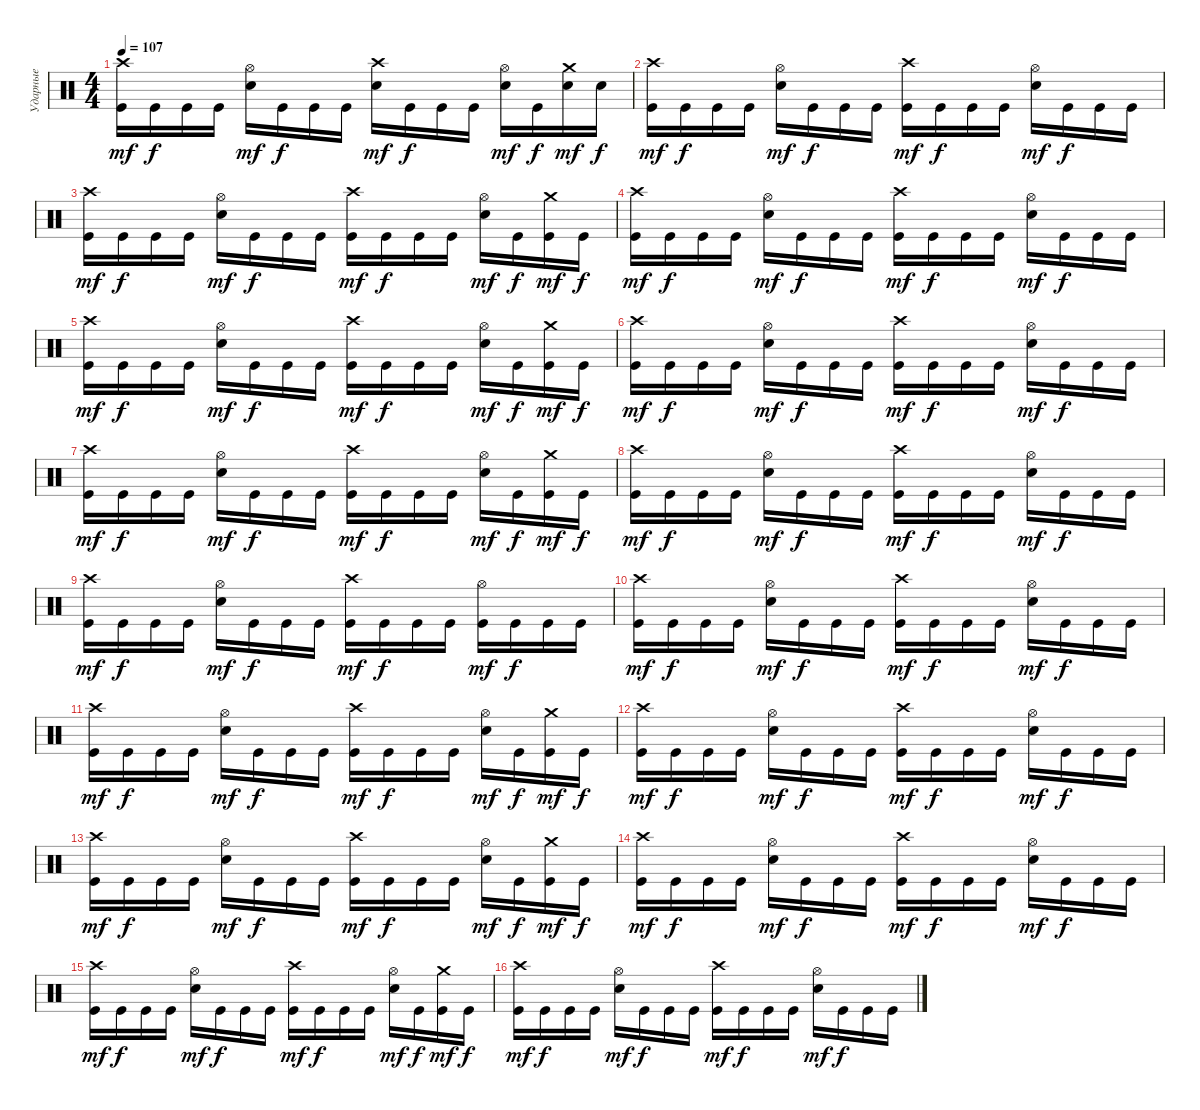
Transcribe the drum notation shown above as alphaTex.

\track ("Ударные" "Ударные") {instrument percussion}
\staff {score}
\articulation defaults
\ts (4 4)
\tempo 107
\clef neutral
\ks c
("Crash high (hit)" "Kick (hit)").16{dy mf} "Kick (hit)".16{dy f} "Kick (hit)".16 "Kick (hit)".16 ("Hi-Hat (open)" "Electric Snare (hit)").16{dy mf} "Kick (hit)".16{dy f} "Kick (hit)".16 "Kick (hit)".16 ("Crash high (hit)" "Electric Snare (hit)").16{dy mf} "Kick (hit)".16{dy f} "Kick (hit)".16 "Kick (hit)".16 ("Hi-Hat (open)" "Electric Snare (hit)").16{dy mf} "Kick (hit)".16{dy f} ("Crash medium (hit)" "Electric Snare (hit)").16{dy mf} "Electric Snare (hit)".16{dy f} |
("Crash high (hit)" "Kick (hit)").16{dy mf} "Kick (hit)".16{dy f} "Kick (hit)".16 "Kick (hit)".16 ("Hi-Hat (open)" "Electric Snare (hit)").16{dy mf} "Kick (hit)".16{dy f} "Kick (hit)".16 "Kick (hit)".16 ("Crash high (hit)" "Kick (hit)").16{dy mf} "Kick (hit)".16{dy f} "Kick (hit)".16 "Kick (hit)".16 ("Hi-Hat (open)" "Electric Snare (hit)").16{dy mf} "Kick (hit)".16{dy f} "Kick (hit)".16 "Kick (hit)".16 |
("Crash high (hit)" "Kick (hit)").16{dy mf} "Kick (hit)".16{dy f} "Kick (hit)".16 "Kick (hit)".16 ("Hi-Hat (open)" "Electric Snare (hit)").16{dy mf} "Kick (hit)".16{dy f} "Kick (hit)".16 "Kick (hit)".16 ("Crash high (hit)" "Kick (hit)").16{dy mf} "Kick (hit)".16{dy f} "Kick (hit)".16 "Kick (hit)".16 ("Hi-Hat (open)" "Electric Snare (hit)").16{dy mf} "Kick (hit)".16{dy f} ("Crash medium (hit)" "Kick (hit)").16{dy mf} "Kick (hit)".16{dy f} |
("Crash high (hit)" "Kick (hit)").16{dy mf} "Kick (hit)".16{dy f} "Kick (hit)".16 "Kick (hit)".16 ("Hi-Hat (open)" "Electric Snare (hit)").16{dy mf} "Kick (hit)".16{dy f} "Kick (hit)".16 "Kick (hit)".16 ("Crash high (hit)" "Kick (hit)").16{dy mf} "Kick (hit)".16{dy f} "Kick (hit)".16 "Kick (hit)".16 ("Hi-Hat (open)" "Electric Snare (hit)").16{dy mf} "Kick (hit)".16{dy f} "Kick (hit)".16 "Kick (hit)".16 |
("Crash high (hit)" "Kick (hit)").16{dy mf} "Kick (hit)".16{dy f} "Kick (hit)".16 "Kick (hit)".16 ("Hi-Hat (open)" "Electric Snare (hit)").16{dy mf} "Kick (hit)".16{dy f} "Kick (hit)".16 "Kick (hit)".16 ("Crash high (hit)" "Kick (hit)").16{dy mf} "Kick (hit)".16{dy f} "Kick (hit)".16 "Kick (hit)".16 ("Hi-Hat (open)" "Electric Snare (hit)").16{dy mf} "Kick (hit)".16{dy f} ("Crash medium (hit)" "Kick (hit)").16{dy mf} "Kick (hit)".16{dy f} |
("Crash high (hit)" "Kick (hit)").16{dy mf} "Kick (hit)".16{dy f} "Kick (hit)".16 "Kick (hit)".16 ("Hi-Hat (open)" "Electric Snare (hit)").16{dy mf} "Kick (hit)".16{dy f} "Kick (hit)".16 "Kick (hit)".16 ("Crash high (hit)" "Kick (hit)").16{dy mf} "Kick (hit)".16{dy f} "Kick (hit)".16 "Kick (hit)".16 ("Hi-Hat (open)" "Electric Snare (hit)").16{dy mf} "Kick (hit)".16{dy f} "Kick (hit)".16 "Kick (hit)".16 |
("Crash high (hit)" "Kick (hit)").16{dy mf} "Kick (hit)".16{dy f} "Kick (hit)".16 "Kick (hit)".16 ("Hi-Hat (open)" "Electric Snare (hit)").16{dy mf} "Kick (hit)".16{dy f} "Kick (hit)".16 "Kick (hit)".16 ("Crash high (hit)" "Kick (hit)").16{dy mf} "Kick (hit)".16{dy f} "Kick (hit)".16 "Kick (hit)".16 ("Hi-Hat (open)" "Electric Snare (hit)").16{dy mf} "Kick (hit)".16{dy f} ("Crash medium (hit)" "Kick (hit)").16{dy mf} "Kick (hit)".16{dy f} |
("Crash high (hit)" "Kick (hit)").16{dy mf} "Kick (hit)".16{dy f} "Kick (hit)".16 "Kick (hit)".16 ("Hi-Hat (open)" "Electric Snare (hit)").16{dy mf} "Kick (hit)".16{dy f} "Kick (hit)".16 "Kick (hit)".16 ("Crash high (hit)" "Kick (hit)").16{dy mf} "Kick (hit)".16{dy f} "Kick (hit)".16 "Kick (hit)".16 ("Hi-Hat (open)" "Electric Snare (hit)").16{dy mf} "Kick (hit)".16{dy f} "Kick (hit)".16 "Kick (hit)".16 |
("Crash high (hit)" "Kick (hit)").16{dy mf} "Kick (hit)".16{dy f} "Kick (hit)".16 "Kick (hit)".16 ("Hi-Hat (open)" "Electric Snare (hit)").16{dy mf} "Kick (hit)".16{dy f} "Kick (hit)".16 "Kick (hit)".16 ("Crash high (hit)" "Kick (hit)").16{dy mf} "Kick (hit)".16{dy f} "Kick (hit)".16 "Kick (hit)".16 ("Hi-Hat (open)" "Kick (hit)").16{dy mf} "Kick (hit)".16{dy f} "Kick (hit)".16 "Kick (hit)".16 |
("Crash high (hit)" "Kick (hit)").16{dy mf} "Kick (hit)".16{dy f} "Kick (hit)".16 "Kick (hit)".16 ("Hi-Hat (open)" "Electric Snare (hit)").16{dy mf} "Kick (hit)".16{dy f} "Kick (hit)".16 "Kick (hit)".16 ("Crash high (hit)" "Kick (hit)").16{dy mf} "Kick (hit)".16{dy f} "Kick (hit)".16 "Kick (hit)".16 ("Hi-Hat (open)" "Electric Snare (hit)").16{dy mf} "Kick (hit)".16{dy f} "Kick (hit)".16 "Kick (hit)".16 |
("Crash high (hit)" "Kick (hit)").16{dy mf} "Kick (hit)".16{dy f} "Kick (hit)".16 "Kick (hit)".16 ("Hi-Hat (open)" "Electric Snare (hit)").16{dy mf} "Kick (hit)".16{dy f} "Kick (hit)".16 "Kick (hit)".16 ("Crash high (hit)" "Kick (hit)").16{dy mf} "Kick (hit)".16{dy f} "Kick (hit)".16 "Kick (hit)".16 ("Hi-Hat (open)" "Electric Snare (hit)").16{dy mf} "Kick (hit)".16{dy f} ("Crash medium (hit)" "Kick (hit)").16{dy mf} "Kick (hit)".16{dy f} |
("Crash high (hit)" "Kick (hit)").16{dy mf} "Kick (hit)".16{dy f} "Kick (hit)".16 "Kick (hit)".16 ("Hi-Hat (open)" "Electric Snare (hit)").16{dy mf} "Kick (hit)".16{dy f} "Kick (hit)".16 "Kick (hit)".16 ("Crash high (hit)" "Kick (hit)").16{dy mf} "Kick (hit)".16{dy f} "Kick (hit)".16 "Kick (hit)".16 ("Hi-Hat (open)" "Electric Snare (hit)").16{dy mf} "Kick (hit)".16{dy f} "Kick (hit)".16 "Kick (hit)".16 |
("Crash high (hit)" "Kick (hit)").16{dy mf} "Kick (hit)".16{dy f} "Kick (hit)".16 "Kick (hit)".16 ("Hi-Hat (open)" "Electric Snare (hit)").16{dy mf} "Kick (hit)".16{dy f} "Kick (hit)".16 "Kick (hit)".16 ("Crash high (hit)" "Kick (hit)").16{dy mf} "Kick (hit)".16{dy f} "Kick (hit)".16 "Kick (hit)".16 ("Hi-Hat (open)" "Electric Snare (hit)").16{dy mf} "Kick (hit)".16{dy f} ("Crash medium (hit)" "Kick (hit)").16{dy mf} "Kick (hit)".16{dy f} |
("Crash high (hit)" "Kick (hit)").16{dy mf} "Kick (hit)".16{dy f} "Kick (hit)".16 "Kick (hit)".16 ("Hi-Hat (open)" "Electric Snare (hit)").16{dy mf} "Kick (hit)".16{dy f} "Kick (hit)".16 "Kick (hit)".16 ("Crash high (hit)" "Kick (hit)").16{dy mf} "Kick (hit)".16{dy f} "Kick (hit)".16 "Kick (hit)".16 ("Hi-Hat (open)" "Electric Snare (hit)").16{dy mf} "Kick (hit)".16{dy f} "Kick (hit)".16 "Kick (hit)".16 |
("Crash high (hit)" "Kick (hit)").16{dy mf} "Kick (hit)".16{dy f} "Kick (hit)".16 "Kick (hit)".16 ("Hi-Hat (open)" "Electric Snare (hit)").16{dy mf} "Kick (hit)".16{dy f} "Kick (hit)".16 "Kick (hit)".16 ("Crash high (hit)" "Kick (hit)").16{dy mf} "Kick (hit)".16{dy f} "Kick (hit)".16 "Kick (hit)".16 ("Hi-Hat (open)" "Electric Snare (hit)").16{dy mf} "Kick (hit)".16{dy f} ("Crash medium (hit)" "Kick (hit)").16{dy mf} "Kick (hit)".16{dy f} |
("Crash high (hit)" "Kick (hit)").16{dy mf} "Kick (hit)".16{dy f} "Kick (hit)".16 "Kick (hit)".16 ("Hi-Hat (open)" "Electric Snare (hit)").16{dy mf} "Kick (hit)".16{dy f} "Kick (hit)".16 "Kick (hit)".16 ("Crash high (hit)" "Kick (hit)").16{dy mf} "Kick (hit)".16{dy f} "Kick (hit)".16 "Kick (hit)".16 ("Hi-Hat (open)" "Electric Snare (hit)").16{dy mf} "Kick (hit)".16{dy f} "Kick (hit)".16 "Kick (hit)".16
